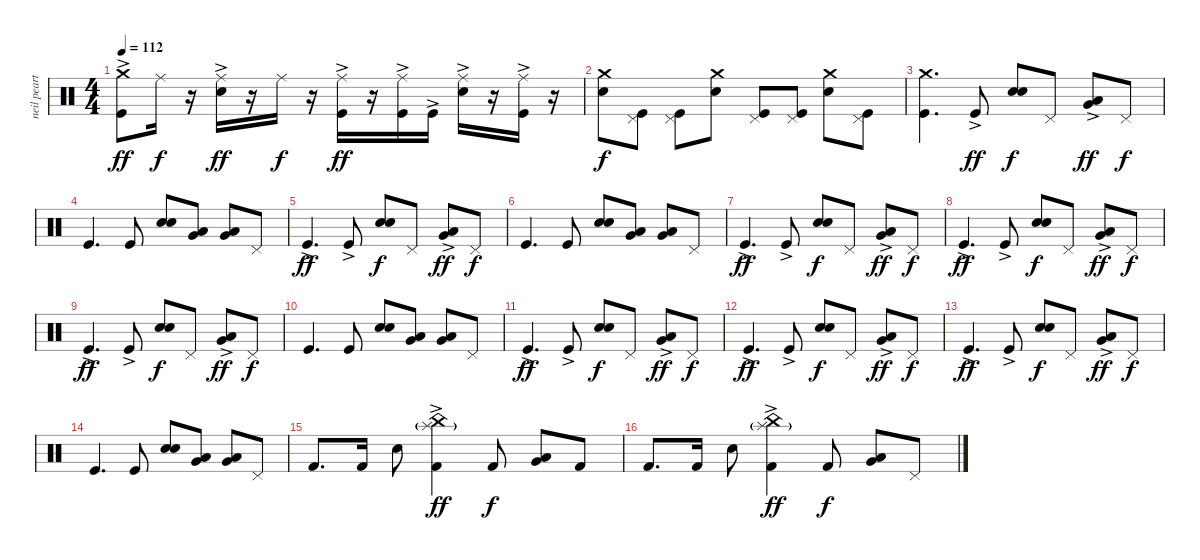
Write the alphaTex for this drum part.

\track ("neil peart" "neil peart") {instrument percussion}
\staff {score}
\articulation defaults
\ts (4 4)
\tempo 112
\clef neutral
\ks c
("Crash medium (hit)" "Kick (hit)"{ac}).8{dy ff} "Ride (middle)".16{dy f} r.16 ("Ride (middle)" "Electric Snare (hit)"{ac}).16{dy ff} r.16 "Ride (middle)".16{dy f} r.16 ("Ride (middle)" "Kick (hit)"{ac}).16{dy ff} r.16 ("Ride (middle)" "Kick (hit)"{ac}).16 "Kick (hit)"{ac}.16 ("Ride (middle)" "Electric Snare (hit)"{ac}).16 r.16 ("Ride (middle)" "Kick (hit)"{ac}).16 r.16 |
("Crash medium (hit)" "Electric Snare (hit)").8{dy f} ("Pedal Hi-Hat (hit)" "Kick (hit)").8 ("Pedal Hi-Hat (hit)" "Kick (hit)").8 ("Crash medium (hit)" "Electric Snare (hit)").8 ("Pedal Hi-Hat (hit)" "Kick (hit)").8 ("Pedal Hi-Hat (hit)" "Kick (hit)").8 ("Crash medium (hit)" "Electric Snare (hit)").8 ("Pedal Hi-Hat (hit)" "Kick (hit)").8 |
("Crash medium (hit)" "Kick (hit)").4{d} "Kick (hit)"{ac}.8{dy ff} ("Electric Snare (hit)" "Electric Snare (hit)").8{dy f} "Pedal Hi-Hat (hit)".8 ("Low Tom (hit)"{ac} "Very Low Tom (hit)"{ac}).8{dy ff} "Pedal Hi-Hat (hit)".8{dy f} |
"Kick (hit)".4{d} "Kick (hit)".8 ("Electric Snare (hit)" "Electric Snare (hit)").8 ("Low Tom (hit)" "Very Low Tom (hit)").8 ("Very Low Tom (hit)" "Low Floor Tom (hit)").8 "Pedal Hi-Hat (hit)".8 |
"Kick (hit)"{ac}.4{d dy ff} "Kick (hit)"{ac}.8 ("Electric Snare (hit)" "Electric Snare (hit)").8{dy f} "Pedal Hi-Hat (hit)".8 ("Low Tom (hit)"{ac} "Very Low Tom (hit)"{ac}).8{dy ff} "Pedal Hi-Hat (hit)".8{dy f} |
"Kick (hit)".4{d} "Kick (hit)".8 ("Electric Snare (hit)" "Electric Snare (hit)").8 ("Low Tom (hit)" "Very Low Tom (hit)").8 ("Very Low Tom (hit)" "Low Floor Tom (hit)").8 "Pedal Hi-Hat (hit)".8 |
"Kick (hit)"{ac}.4{d dy ff} "Kick (hit)"{ac}.8 ("Electric Snare (hit)" "Electric Snare (hit)").8{dy f} "Pedal Hi-Hat (hit)".8 ("Low Tom (hit)"{ac} "Very Low Tom (hit)"{ac}).8{dy ff} "Pedal Hi-Hat (hit)".8{dy f} |
"Kick (hit)"{ac}.4{d dy ff} "Kick (hit)"{ac}.8 ("Electric Snare (hit)" "Electric Snare (hit)").8{dy f} "Pedal Hi-Hat (hit)".8 ("Low Tom (hit)"{ac} "Very Low Tom (hit)"{ac}).8{dy ff} "Pedal Hi-Hat (hit)".8{dy f} |
"Kick (hit)"{ac}.4{d dy ff} "Kick (hit)"{ac}.8 ("Electric Snare (hit)" "Electric Snare (hit)").8{dy f} "Pedal Hi-Hat (hit)".8 ("Low Tom (hit)"{ac} "Very Low Tom (hit)"{ac}).8{dy ff} "Pedal Hi-Hat (hit)".8{dy f} |
"Kick (hit)".4{d} "Kick (hit)".8 ("Electric Snare (hit)" "Electric Snare (hit)").8 ("Low Tom (hit)" "Very Low Tom (hit)").8 ("Very Low Tom (hit)" "Low Floor Tom (hit)").8 "Pedal Hi-Hat (hit)".8 |
"Kick (hit)"{ac}.4{d dy ff} "Kick (hit)"{ac}.8 ("Electric Snare (hit)" "Electric Snare (hit)").8{dy f} "Pedal Hi-Hat (hit)".8 ("Low Tom (hit)"{ac} "Very Low Tom (hit)"{ac}).8{dy ff} "Pedal Hi-Hat (hit)".8{dy f} |
"Kick (hit)"{ac}.4{d dy ff} "Kick (hit)"{ac}.8 ("Electric Snare (hit)" "Electric Snare (hit)").8{dy f} "Pedal Hi-Hat (hit)".8 ("Low Tom (hit)"{ac} "Very Low Tom (hit)"{ac}).8{dy ff} "Pedal Hi-Hat (hit)".8{dy f} |
"Kick (hit)"{ac}.4{d dy ff} "Kick (hit)"{ac}.8 ("Electric Snare (hit)" "Electric Snare (hit)").8{dy f} "Pedal Hi-Hat (hit)".8 ("Low Tom (hit)"{ac} "Very Low Tom (hit)"{ac}).8{dy ff} "Pedal Hi-Hat (hit)".8{dy f} |
"Kick (hit)".4{d} "Kick (hit)".8 ("Electric Snare (hit)" "Electric Snare (hit)").8 ("Low Tom (hit)" "Very Low Tom (hit)").8 ("Very Low Tom (hit)" "Low Floor Tom (hit)").8 "Pedal Hi-Hat (hit)".8 |
"Kick (hit) 2".8{d} "Kick (hit) 2".16 "Electric Snare (hit)".8 ("Splash (hit)"{g} "China (hit)" "Kick (hit) 2"{ac}).4{dy ff} "Kick (hit) 2".8{dy f} ("Very Low Tom (hit)" "Low Floor Tom (hit)").8 "Kick (hit) 2".8 |
"Kick (hit) 2".8{d} "Kick (hit) 2".16 "Electric Snare (hit)".8 ("Splash (hit)"{g} "China (hit)" "Kick (hit) 2"{ac}).4{dy ff} "Kick (hit) 2".8{dy f} ("Very Low Tom (hit)" "Low Floor Tom (hit)").8 "Pedal Hi-Hat (hit)".8
